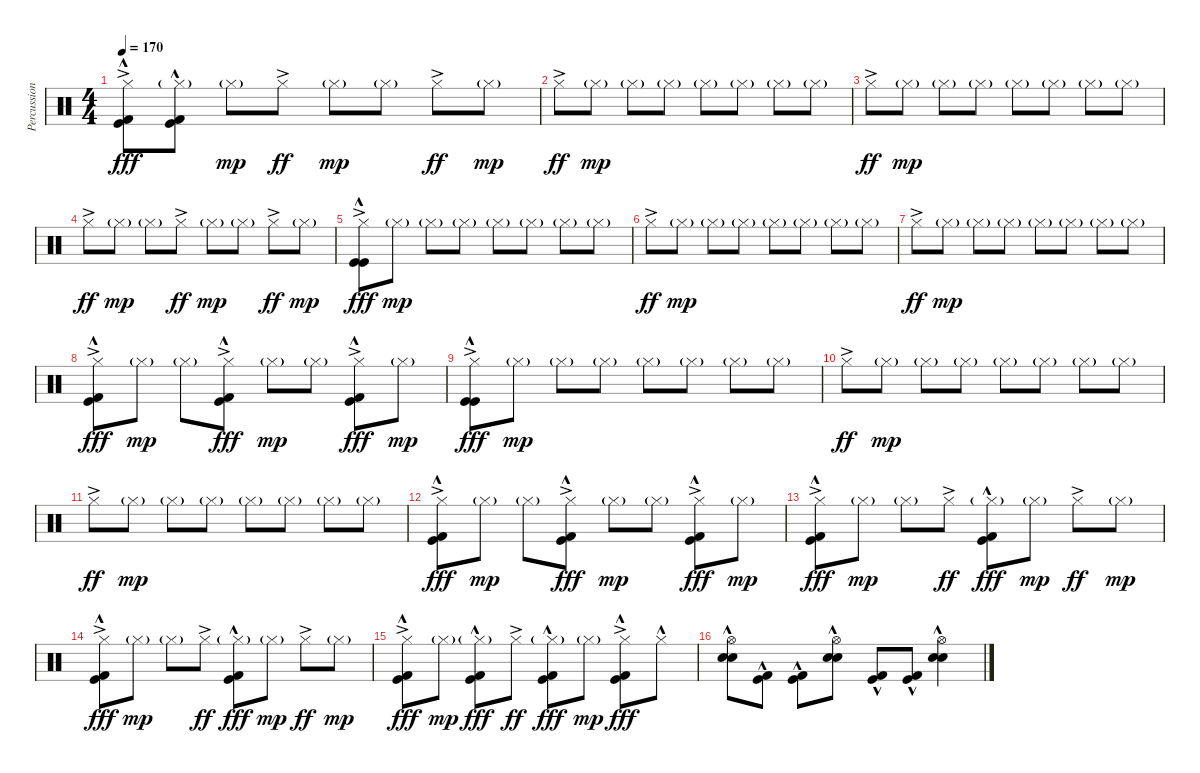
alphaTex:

\track ("Percussion" "Percussion") {instrument percussion}
\staff {score}
\articulation defaults
\ts (4 4)
\tempo 170
\clef neutral
\ks c
("Hi-Hat (closed)"{ac} "Kick (hit) 2"{hac} "Kick (hit)"{hac}).8{dy fff} ("Hi-Hat (closed)"{g} "Kick (hit) 2"{hac} "Kick (hit)"{hac}).8 "Hi-Hat (closed)"{g}.8{dy mp} "Hi-Hat (closed)"{ac}.8{dy ff} "Hi-Hat (closed)"{g}.8{dy mp} "Hi-Hat (closed)"{g}.8 "Hi-Hat (closed)"{ac}.8{dy ff} "Hi-Hat (closed)"{g}.8{dy mp} |
"Hi-Hat (closed)"{ac}.8{dy ff} "Hi-Hat (closed)"{g}.8{dy mp} "Hi-Hat (closed)"{g}.8 "Hi-Hat (closed)"{g}.8 "Hi-Hat (closed)"{g}.8 "Hi-Hat (closed)"{g}.8 "Hi-Hat (closed)"{g}.8 "Hi-Hat (closed)"{g}.8 |
"Hi-Hat (closed)"{ac}.8{dy ff} "Hi-Hat (closed)"{g}.8{dy mp} "Hi-Hat (closed)"{g}.8 "Hi-Hat (closed)"{g}.8 "Hi-Hat (closed)"{g}.8 "Hi-Hat (closed)"{g}.8 "Hi-Hat (closed)"{g}.8 "Hi-Hat (closed)"{g}.8 |
"Hi-Hat (closed)"{ac}.8{dy ff} "Hi-Hat (closed)"{g}.8{dy mp} "Hi-Hat (closed)"{g}.8 "Hi-Hat (closed)"{ac}.8{dy ff} "Hi-Hat (closed)"{g}.8{dy mp} "Hi-Hat (closed)"{g}.8 "Hi-Hat (closed)"{ac}.8{dy ff} "Hi-Hat (closed)"{g}.8{dy mp} |
("Hi-Hat (closed)"{ac} "Kick (hit)"{hac} "Kick (hit)"{hac}).8{dy fff} "Hi-Hat (closed)"{g}.8{dy mp} "Hi-Hat (closed)"{g}.8 "Hi-Hat (closed)"{g}.8 "Hi-Hat (closed)"{g}.8 "Hi-Hat (closed)"{g}.8 "Hi-Hat (closed)"{g}.8 "Hi-Hat (closed)"{g}.8 |
"Hi-Hat (closed)"{ac}.8{dy ff} "Hi-Hat (closed)"{g}.8{dy mp} "Hi-Hat (closed)"{g}.8 "Hi-Hat (closed)"{g}.8 "Hi-Hat (closed)"{g}.8 "Hi-Hat (closed)"{g}.8 "Hi-Hat (closed)"{g}.8 "Hi-Hat (closed)"{g}.8 |
"Hi-Hat (closed)"{ac}.8{dy ff} "Hi-Hat (closed)"{g}.8{dy mp} "Hi-Hat (closed)"{g}.8 "Hi-Hat (closed)"{g}.8 "Hi-Hat (closed)"{g}.8 "Hi-Hat (closed)"{g}.8 "Hi-Hat (closed)"{g}.8 "Hi-Hat (closed)"{g}.8 |
("Hi-Hat (closed)"{ac} "Kick (hit) 2"{hac} "Kick (hit)"{hac}).8{dy fff} "Hi-Hat (closed)"{g}.8{dy mp} "Hi-Hat (closed)"{g}.8 ("Hi-Hat (closed)"{ac} "Kick (hit)"{hac} "Kick (hit) 2"{hac}).8{dy fff} "Hi-Hat (closed)"{g}.8{dy mp} "Hi-Hat (closed)"{g}.8 ("Hi-Hat (closed)"{ac} "Kick (hit) 2"{hac} "Kick (hit)"{hac}).8{dy fff} "Hi-Hat (closed)"{g}.8{dy mp} |
("Hi-Hat (closed)"{ac} "Kick (hit)"{hac} "Kick (hit)"{hac}).8{dy fff} "Hi-Hat (closed)"{g}.8{dy mp} "Hi-Hat (closed)"{g}.8 "Hi-Hat (closed)"{g}.8 "Hi-Hat (closed)"{g}.8 "Hi-Hat (closed)"{g}.8 "Hi-Hat (closed)"{g}.8 "Hi-Hat (closed)"{g}.8 |
"Hi-Hat (closed)"{ac}.8{dy ff} "Hi-Hat (closed)"{g}.8{dy mp} "Hi-Hat (closed)"{g}.8 "Hi-Hat (closed)"{g}.8 "Hi-Hat (closed)"{g}.8 "Hi-Hat (closed)"{g}.8 "Hi-Hat (closed)"{g}.8 "Hi-Hat (closed)"{g}.8 |
"Hi-Hat (closed)"{ac}.8{dy ff} "Hi-Hat (closed)"{g}.8{dy mp} "Hi-Hat (closed)"{g}.8 "Hi-Hat (closed)"{g}.8 "Hi-Hat (closed)"{g}.8 "Hi-Hat (closed)"{g}.8 "Hi-Hat (closed)"{g}.8 "Hi-Hat (closed)"{g}.8 |
("Hi-Hat (closed)"{ac} "Kick (hit) 2"{hac} "Kick (hit)"{hac}).8{dy fff} "Hi-Hat (closed)"{g}.8{dy mp} "Hi-Hat (closed)"{g}.8 ("Hi-Hat (closed)"{ac} "Kick (hit)"{hac} "Kick (hit) 2"{hac}).8{dy fff} "Hi-Hat (closed)"{g}.8{dy mp} "Hi-Hat (closed)"{g}.8 ("Hi-Hat (closed)"{ac} "Kick (hit) 2"{hac} "Kick (hit)"{hac}).8{dy fff} "Hi-Hat (closed)"{g}.8{dy mp} |
("Hi-Hat (closed)"{ac} "Kick (hit) 2"{hac} "Kick (hit)"{hac}).8{dy fff} "Hi-Hat (closed)"{g}.8{dy mp} "Hi-Hat (closed)"{g}.8 "Hi-Hat (closed)"{ac}.8{dy ff} ("Hi-Hat (closed)"{g} "Kick (hit) 2"{hac} "Kick (hit)"{hac}).8{dy fff} "Hi-Hat (closed)"{g}.8{dy mp} "Hi-Hat (closed)"{ac}.8{dy ff} "Hi-Hat (closed)"{g}.8{dy mp} |
("Hi-Hat (closed)"{ac} "Kick (hit) 2"{hac} "Kick (hit)"{hac}).8{dy fff} "Hi-Hat (closed)"{g}.8{dy mp} "Hi-Hat (closed)"{g}.8 "Hi-Hat (closed)"{ac}.8{dy ff} ("Hi-Hat (closed)"{g} "Kick (hit) 2"{hac} "Kick (hit)"{hac}).8{dy fff} "Hi-Hat (closed)"{g}.8{dy mp} "Hi-Hat (closed)"{ac}.8{dy ff} "Hi-Hat (closed)"{g}.8{dy mp} |
("Hi-Hat (closed)"{ac} "Kick (hit) 2"{hac} "Kick (hit)"{hac}).8{dy fff} "Hi-Hat (closed)"{g}.8{dy mp} ("Hi-Hat (closed)"{g} "Kick (hit) 2"{hac} "Kick (hit)"{hac}).8{dy fff} "Hi-Hat (closed)"{ac}.8{dy ff} ("Hi-Hat (closed)"{g} "Kick (hit) 2"{hac} "Kick (hit)"{hac}).8{dy fff} "Hi-Hat (closed)"{g}.8{dy mp} ("Hi-Hat (closed)"{ac} "Kick (hit) 2"{hac} "Kick (hit)"{hac}).8{dy fff} "Hi-Hat (closed)"{hac}.8 |
("Hi-Hat (open)" "Snare (hit) 2"{hac} "Electric Snare (hit)"{hac}).8 ("Kick (hit) 2"{hac} "Kick (hit)"{hac}).8 ("Kick (hit) 2"{hac} "Kick (hit)"{hac}).8 ("Hi-Hat (open)" "Snare (hit) 2"{hac} "Electric Snare (hit)"{hac}).8 ("Kick (hit) 2"{hac} "Kick (hit)"{hac}).8 ("Kick (hit) 2"{hac} "Kick (hit)"{hac}).8 ("Hi-Hat (open)" "Snare (hit) 2"{hac} "Electric Snare (hit)"{hac}).4
